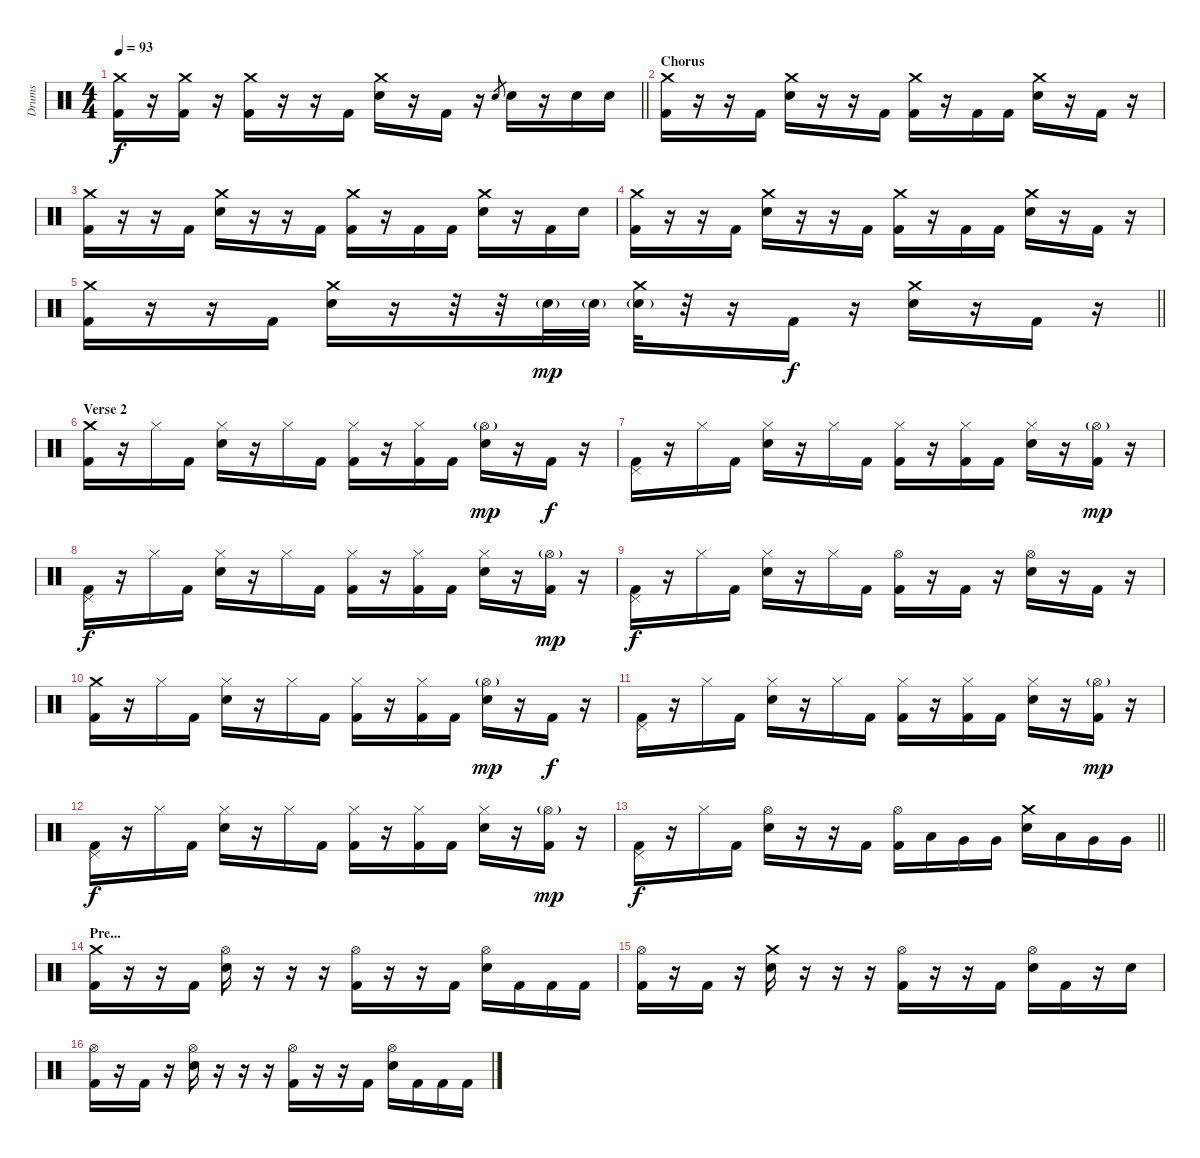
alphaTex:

\track ("Drums" "Drums") {instrument percussion}
\staff {score}
\articulation defaults
\ts (4 4)
\tempo 93
\clef neutral
\barLineRight lightlight
\ks c
("Crash medium (hit)" "Kick (hit) 2").16{dy f} r.16 ("Crash medium (hit)" "Kick (hit) 2").16 r.16 ("Crash medium (hit)" "Kick (hit) 2").16 r.16 r.16 "Kick (hit) 2".16 ("Crash medium (hit)" "Electric Snare (hit)").16 r.16 "Kick (hit) 2".16 r.16 "Electric Snare (hit)".8{gr} "Electric Snare (hit)".16 r.16 "Electric Snare (hit)".16 "Electric Snare (hit)".16 |
\section ("" "Chorus")
("Crash medium (hit)" "Kick (hit) 2").16 r.16 r.16 "Kick (hit) 2".16 ("Crash medium (hit)" "Electric Snare (hit)").16 r.16 r.16 "Kick (hit) 2".16 ("Crash medium (hit)" "Kick (hit) 2").16 r.16 "Kick (hit) 2".16 "Kick (hit) 2".16 ("Crash medium (hit)" "Electric Snare (hit)").16 r.16 "Kick (hit) 2".16 r.16 |
("Crash medium (hit)" "Kick (hit) 2").16 r.16 r.16 "Kick (hit) 2".16 ("Crash medium (hit)" "Electric Snare (hit)").16 r.16 r.16 "Kick (hit) 2".16 ("Crash medium (hit)" "Kick (hit) 2").16 r.16 "Kick (hit) 2".16 "Kick (hit) 2".16 ("Crash medium (hit)" "Electric Snare (hit)").16 r.16 "Kick (hit) 2".16 "Electric Snare (hit)".16 |
("Crash medium (hit)" "Kick (hit) 2").16 r.16 r.16 "Kick (hit) 2".16 ("Crash medium (hit)" "Electric Snare (hit)").16 r.16 r.16 "Kick (hit) 2".16 ("Crash medium (hit)" "Kick (hit) 2").16 r.16 "Kick (hit) 2".16 "Kick (hit) 2".16 ("Crash medium (hit)" "Electric Snare (hit)").16 r.16 "Kick (hit) 2".16 r.16 |
\barLineRight lightlight
("Crash medium (hit)" "Kick (hit) 2").16 r.16 r.16 "Kick (hit) 2".16 ("Crash medium (hit)" "Electric Snare (hit)").16 r.16 r.32 r.32 "Electric Snare (hit)"{g}.32{dy mp} "Electric Snare (hit)"{g}.32 ("Crash medium (hit)" "Electric Snare (hit)"{g}).32 r.32 r.16 "Kick (hit) 2".16{dy f} r.16 ("Crash medium (hit)" "Electric Snare (hit)").16 r.16 "Kick (hit) 2".16 r.16 |
\section ("" "Verse 2")
("Crash medium (hit)" "Kick (hit) 2").16 r.16 "Hi-Hat (closed)".16 "Kick (hit) 2".16 ("Hi-Hat (closed)" "Electric Snare (hit)").16 r.16 "Hi-Hat (closed)".16 "Kick (hit) 2".16 ("Hi-Hat (closed)" "Kick (hit) 2").16 r.16 ("Hi-Hat (closed)" "Kick (hit) 2").16 "Kick (hit) 2".16 ("Hi-Hat (open)"{g} "Electric Snare (hit)").16{dy mp} r.16 "Kick (hit) 2".16{dy f} r.16 |
("Pedal Hi-Hat (hit)" "Kick (hit) 2").16 r.16 "Hi-Hat (closed)".16 "Kick (hit) 2".16 ("Hi-Hat (closed)" "Electric Snare (hit)").16 r.16 "Hi-Hat (closed)".16 "Kick (hit) 2".16 ("Hi-Hat (closed)" "Kick (hit) 2").16 r.16 ("Hi-Hat (closed)" "Kick (hit) 2").16 "Kick (hit) 2".16 ("Hi-Hat (closed)" "Electric Snare (hit)").16 r.16 ("Hi-Hat (open)"{g} "Kick (hit) 2").16{dy mp} r.16 |
("Pedal Hi-Hat (hit)" "Kick (hit) 2").16{dy f} r.16 "Hi-Hat (closed)".16 "Kick (hit) 2".16 ("Hi-Hat (closed)" "Electric Snare (hit)").16 r.16 "Hi-Hat (closed)".16 "Kick (hit) 2".16 ("Hi-Hat (closed)" "Kick (hit) 2").16 r.16 ("Hi-Hat (closed)" "Kick (hit) 2").16 "Kick (hit) 2".16 ("Hi-Hat (closed)" "Electric Snare (hit)").16 r.16 ("Hi-Hat (open)"{g} "Kick (hit) 2").16{dy mp} r.16 |
("Pedal Hi-Hat (hit)" "Kick (hit) 2").16{dy f} r.16 "Hi-Hat (closed)".16 "Kick (hit) 2".16 ("Hi-Hat (closed)" "Electric Snare (hit)").16 r.16 "Hi-Hat (closed)".16 "Kick (hit) 2".16 ("Hi-Hat (open)" "Kick (hit) 2").16 r.16 "Kick (hit) 2".16 r.16 ("Hi-Hat (open)" "Electric Snare (hit)").16 r.16 "Kick (hit) 2".16 r.16 |
("Crash medium (hit)" "Kick (hit) 2").16 r.16 "Hi-Hat (closed)".16 "Kick (hit) 2".16 ("Hi-Hat (closed)" "Electric Snare (hit)").16 r.16 "Hi-Hat (closed)".16 "Kick (hit) 2".16 ("Hi-Hat (closed)" "Kick (hit) 2").16 r.16 ("Hi-Hat (closed)" "Kick (hit) 2").16 "Kick (hit) 2".16 ("Hi-Hat (open)"{g} "Electric Snare (hit)").16{dy mp} r.16 "Kick (hit) 2".16{dy f} r.16 |
("Pedal Hi-Hat (hit)" "Kick (hit) 2").16 r.16 "Hi-Hat (closed)".16 "Kick (hit) 2".16 ("Hi-Hat (closed)" "Electric Snare (hit)").16 r.16 "Hi-Hat (closed)".16 "Kick (hit) 2".16 ("Hi-Hat (closed)" "Kick (hit) 2").16 r.16 ("Hi-Hat (closed)" "Kick (hit) 2").16 "Kick (hit) 2".16 ("Hi-Hat (closed)" "Electric Snare (hit)").16 r.16 ("Hi-Hat (open)"{g} "Kick (hit) 2").16{dy mp} r.16 |
("Pedal Hi-Hat (hit)" "Kick (hit) 2").16{dy f} r.16 "Hi-Hat (closed)".16 "Kick (hit) 2".16 ("Hi-Hat (closed)" "Electric Snare (hit)").16 r.16 "Hi-Hat (closed)".16 "Kick (hit) 2".16 ("Hi-Hat (closed)" "Kick (hit) 2").16 r.16 ("Hi-Hat (closed)" "Kick (hit) 2").16 "Kick (hit) 2".16 ("Hi-Hat (closed)" "Electric Snare (hit)").16 r.16 ("Hi-Hat (open)"{g} "Kick (hit) 2").16{dy mp} r.16 |
\barLineRight lightlight
("Pedal Hi-Hat (hit)" "Kick (hit) 2").16{dy f} r.16 "Hi-Hat (closed)".16 "Kick (hit) 2".16 ("Hi-Hat (open)" "Electric Snare (hit)").16 r.16 r.16 "Kick (hit) 2".16 ("Hi-Hat (open)" "Kick (hit) 2").16 "Low Tom (hit)".16 "Very Low Tom (hit)".16 "Very Low Tom (hit)".16 ("Crash medium (hit)" "Electric Snare (hit)").16 "Low Tom (hit)".16 "Very Low Tom (hit)".16 "Very Low Tom (hit)".16 |
\section ("" "Pre...")
("Crash medium (hit)" "Kick (hit) 2").16 r.16 r.16 "Kick (hit) 2".16 ("Hi-Hat (open)" "Electric Snare (hit)").16 r.16 r.16 r.16 ("Hi-Hat (open)" "Kick (hit) 2").16 r.16 r.16 "Kick (hit) 2".16 ("Hi-Hat (open)" "Electric Snare (hit)").16 "Kick (hit) 2".16 "Kick (hit) 2".16 "Kick (hit) 2".16 |
("Hi-Hat (open)" "Kick (hit) 2").16 r.16 "Kick (hit) 2".16 r.16 ("Crash medium (hit)" "Electric Snare (hit)").16 r.16 r.16 r.16 ("Hi-Hat (open)" "Kick (hit) 2").16 r.16 r.16 "Kick (hit) 2".16 ("Hi-Hat (open)" "Electric Snare (hit)").16 "Kick (hit) 2".16 r.16 "Electric Snare (hit)".16 |
("Hi-Hat (open)" "Kick (hit) 2").16 r.16 "Kick (hit) 2".16 r.16 ("Hi-Hat (open)" "Electric Snare (hit)").16 r.16 r.16 r.16 ("Hi-Hat (open)" "Kick (hit) 2").16 r.16 r.16 "Kick (hit) 2".16 ("Hi-Hat (open)" "Electric Snare (hit)").16 "Kick (hit) 2".16 "Kick (hit) 2".16 "Kick (hit) 2".16
